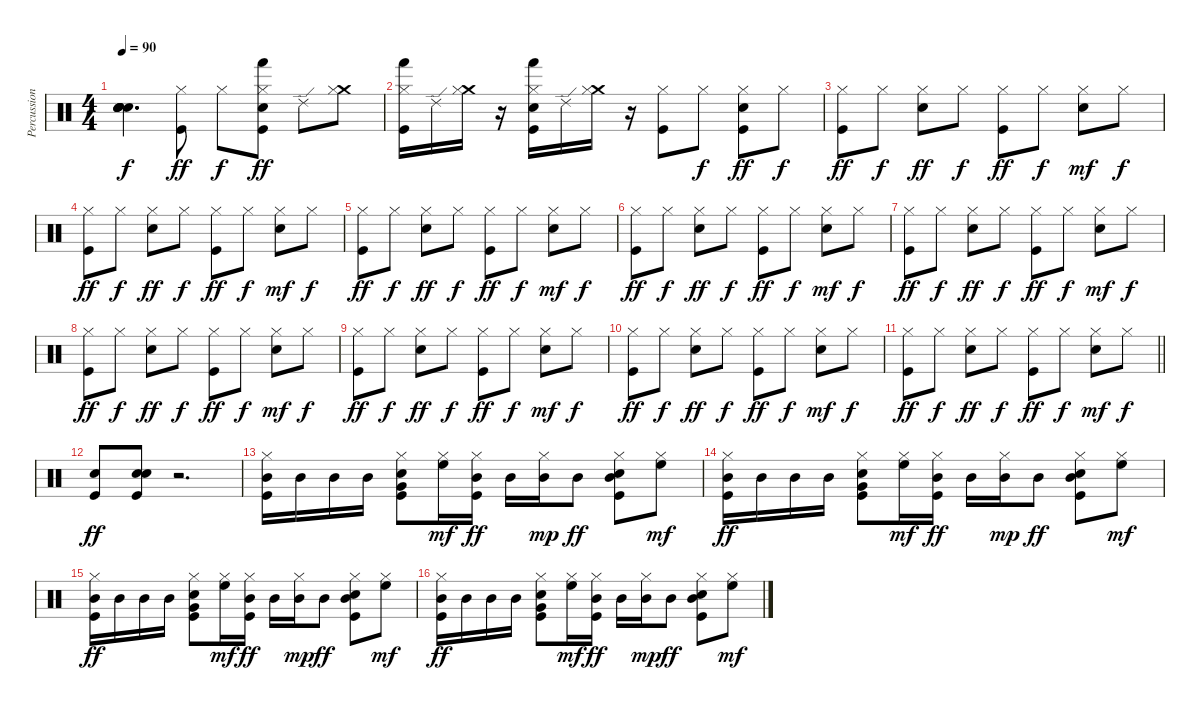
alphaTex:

\track ("Percussion" "Percussion") {instrument percussion}
\staff {score}
\articulation defaults
\ts (4 4)
\tempo 90
\clef neutral
\ks c
("Snare (hit)"{t} "Snare (hit)"{t} "Snare (hit)"{t} "Snare (hit)"{t} "Snare (hit)").4{d dy f} ("Hi-Hat (closed)" "Kick (hit)").8{dy ff} "Hi-Hat (closed)".8{dy f} ("Hand (hit)" "Hi-Hat (closed)" "Snare (hit) 2" "Kick (hit)").8{dy ff} "Ride (edge) 2".8 ("Crash medium (hit)" "Hi-Hat (closed)").8 |
("Hand (hit)" "Hi-Hat (closed)" "Kick (hit)").16 "Ride (edge) 2".16 ("Crash medium (hit)" "Hi-Hat (closed)").16 r.16 ("Hand (hit)" "Hi-Hat (closed)" "Snare (hit) 2" "Kick (hit)").16 "Ride (edge) 2".16 ("Crash medium (hit)" "Hi-Hat (closed)").16 r.16 ("Hi-Hat (closed)" "Kick (hit)").8 "Hi-Hat (closed)".8{dy f} ("Hi-Hat (closed)" "Snare (hit) 2" "Kick (hit)").8{dy ff} "Hi-Hat (closed)".8{dy f} |
("Hi-Hat (closed)" "Kick (hit)").8{dy ff} "Hi-Hat (closed)".8{dy f} ("Hi-Hat (closed)" "Snare (hit) 2").8{dy ff} "Hi-Hat (closed)".8{dy f} ("Hi-Hat (closed)" "Kick (hit)").8{dy ff} "Hi-Hat (closed)".8{dy f} ("Hi-Hat (closed)" "Snare (hit) 2").8{dy mf} "Hi-Hat (closed)".8{dy f} |
("Hi-Hat (closed)" "Kick (hit)").8{dy ff} "Hi-Hat (closed)".8{dy f} ("Hi-Hat (closed)" "Snare (hit) 2").8{dy ff} "Hi-Hat (closed)".8{dy f} ("Hi-Hat (closed)" "Kick (hit)").8{dy ff} "Hi-Hat (closed)".8{dy f} ("Hi-Hat (closed)" "Snare (hit) 2").8{dy mf} "Hi-Hat (closed)".8{dy f} |
("Hi-Hat (closed)" "Kick (hit)").8{dy ff} "Hi-Hat (closed)".8{dy f} ("Hi-Hat (closed)" "Snare (hit) 2").8{dy ff} "Hi-Hat (closed)".8{dy f} ("Hi-Hat (closed)" "Kick (hit)").8{dy ff} "Hi-Hat (closed)".8{dy f} ("Hi-Hat (closed)" "Snare (hit) 2").8{dy mf} "Hi-Hat (closed)".8{dy f} |
("Hi-Hat (closed)" "Kick (hit)").8{dy ff} "Hi-Hat (closed)".8{dy f} ("Hi-Hat (closed)" "Snare (hit) 2").8{dy ff} "Hi-Hat (closed)".8{dy f} ("Hi-Hat (closed)" "Kick (hit)").8{dy ff} "Hi-Hat (closed)".8{dy f} ("Hi-Hat (closed)" "Snare (hit) 2").8{dy mf} "Hi-Hat (closed)".8{dy f} |
("Hi-Hat (closed)" "Kick (hit)").8{dy ff} "Hi-Hat (closed)".8{dy f} ("Hi-Hat (closed)" "Snare (hit) 2").8{dy ff} "Hi-Hat (closed)".8{dy f} ("Hi-Hat (closed)" "Kick (hit)").8{dy ff} "Hi-Hat (closed)".8{dy f} ("Hi-Hat (closed)" "Snare (hit) 2").8{dy mf} "Hi-Hat (closed)".8{dy f} |
("Hi-Hat (closed)" "Kick (hit)").8{dy ff} "Hi-Hat (closed)".8{dy f} ("Hi-Hat (closed)" "Snare (hit) 2").8{dy ff} "Hi-Hat (closed)".8{dy f} ("Hi-Hat (closed)" "Kick (hit)").8{dy ff} "Hi-Hat (closed)".8{dy f} ("Hi-Hat (closed)" "Snare (hit) 2").8{dy mf} "Hi-Hat (closed)".8{dy f} |
("Hi-Hat (closed)" "Kick (hit)").8{dy ff} "Hi-Hat (closed)".8{dy f} ("Hi-Hat (closed)" "Snare (hit) 2").8{dy ff} "Hi-Hat (closed)".8{dy f} ("Hi-Hat (closed)" "Kick (hit)").8{dy ff} "Hi-Hat (closed)".8{dy f} ("Hi-Hat (closed)" "Snare (hit) 2").8{dy mf} "Hi-Hat (closed)".8{dy f} |
("Hi-Hat (closed)" "Kick (hit)").8{dy ff} "Hi-Hat (closed)".8{dy f} ("Hi-Hat (closed)" "Snare (hit) 2").8{dy ff} "Hi-Hat (closed)".8{dy f} ("Hi-Hat (closed)" "Kick (hit)").8{dy ff} "Hi-Hat (closed)".8{dy f} ("Hi-Hat (closed)" "Snare (hit) 2").8{dy mf} "Hi-Hat (closed)".8{dy f} |
\barLineRight lightlight
("Hi-Hat (closed)" "Kick (hit)").8{dy ff} "Hi-Hat (closed)".8{dy f} ("Hi-Hat (closed)" "Snare (hit) 2").8{dy ff} "Hi-Hat (closed)".8{dy f} ("Hi-Hat (closed)" "Kick (hit)").8{dy ff} "Hi-Hat (closed)".8{dy f} ("Hi-Hat (closed)" "Snare (hit) 2").8{dy mf} "Hi-Hat (closed)".8{dy f} |
("Snare (hit) 2" "Kick (hit)").8{dy ff} ("Hand Clap (hit)" "Snare (hit) 2" "Kick (hit)").8 r.2{d} |
("Mid Tom (hit)" "Hi-Hat (closed)" "Kick (hit)").16 "Mid Tom (hit)".16 "Mid Tom (hit)".16 "Mid Tom (hit)".16 ("Very Low Tom (hit)" "Hi-Hat (closed)" "Snare (hit) 2" "Kick (hit)").8 ("High Floor Tom (hit)" "Hi-Hat (closed)").16{dy mf} ("Mid Tom (hit)" "Hi-Hat (closed)" "Kick (hit)").16{dy ff} "Mid Tom (hit)".16 ("Mid Tom (hit)" "Hi-Hat (closed)").16{dy mp} "Mid Tom (hit)".8{dy ff} ("Mid Tom (hit)" "Hi-Hat (closed)" "Snare (hit) 2" "Kick (hit)").8 ("High Floor Tom (hit)" "Hi-Hat (closed)").8{dy mf} |
("Mid Tom (hit)" "Hi-Hat (closed)" "Kick (hit)").16{dy ff} "Mid Tom (hit)".16 "Mid Tom (hit)".16 "Mid Tom (hit)".16 ("Very Low Tom (hit)" "Hi-Hat (closed)" "Snare (hit) 2" "Kick (hit)").8 ("High Floor Tom (hit)" "Hi-Hat (closed)").16{dy mf} ("Mid Tom (hit)" "Hi-Hat (closed)" "Kick (hit)").16{dy ff} "Mid Tom (hit)".16 ("Mid Tom (hit)" "Hi-Hat (closed)").16{dy mp} "Mid Tom (hit)".8{dy ff} ("Mid Tom (hit)" "Hi-Hat (closed)" "Snare (hit) 2" "Kick (hit)").8 ("High Floor Tom (hit)" "Hi-Hat (closed)").8{dy mf} |
("Mid Tom (hit)" "Hi-Hat (closed)" "Kick (hit)").16{dy ff} "Mid Tom (hit)".16 "Mid Tom (hit)".16 "Mid Tom (hit)".16 ("Very Low Tom (hit)" "Hi-Hat (closed)" "Snare (hit) 2" "Kick (hit)").8 ("High Floor Tom (hit)" "Hi-Hat (closed)").16{dy mf} ("Mid Tom (hit)" "Hi-Hat (closed)" "Kick (hit)").16{dy ff} "Mid Tom (hit)".16 ("Mid Tom (hit)" "Hi-Hat (closed)").16{dy mp} "Mid Tom (hit)".8{dy ff} ("Mid Tom (hit)" "Hi-Hat (closed)" "Snare (hit) 2" "Kick (hit)").8 ("High Floor Tom (hit)" "Hi-Hat (closed)").8{dy mf} |
("Mid Tom (hit)" "Hi-Hat (closed)" "Kick (hit)").16{dy ff} "Mid Tom (hit)".16 "Mid Tom (hit)".16 "Mid Tom (hit)".16 ("Very Low Tom (hit)" "Hi-Hat (closed)" "Snare (hit) 2" "Kick (hit)").8 ("High Floor Tom (hit)" "Hi-Hat (closed)").16{dy mf} ("Mid Tom (hit)" "Hi-Hat (closed)" "Kick (hit)").16{dy ff} "Mid Tom (hit)".16 ("Mid Tom (hit)" "Hi-Hat (closed)").16{dy mp} "Mid Tom (hit)".8{dy ff} ("Mid Tom (hit)" "Hi-Hat (closed)" "Snare (hit) 2" "Kick (hit)").8 ("High Floor Tom (hit)" "Hi-Hat (closed)").8{dy mf}
